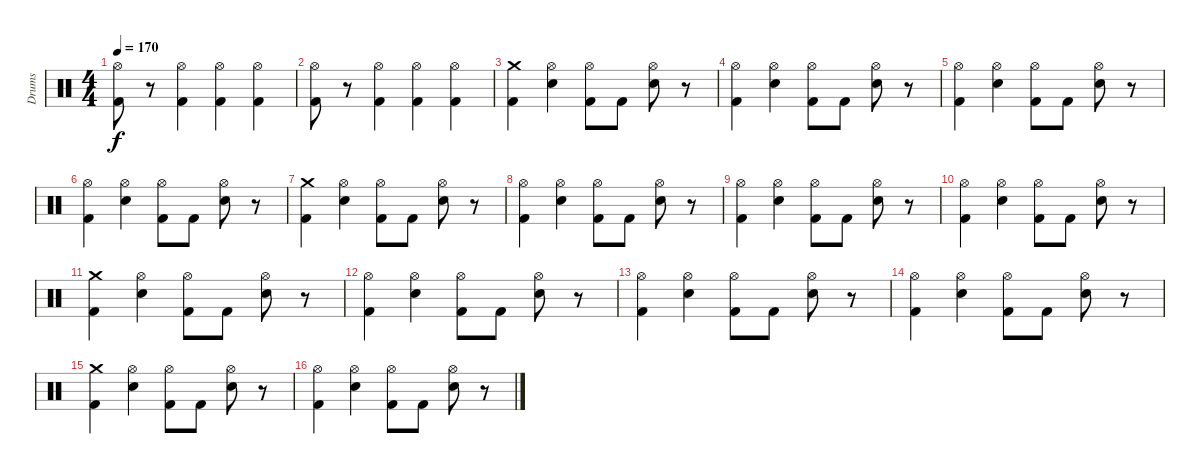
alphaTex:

\track ("Drums" "Drums") {instrument percussion}
\staff {score}
\articulation defaults
\ts (4 4)
\tempo 170
\clef neutral
\ks c
("Hi-Hat (open)" "Kick (hit) 2").8{dy f} r.8 ("Kick (hit) 2" "Hi-Hat (open)").4 ("Hi-Hat (open)" "Kick (hit) 2").4 ("Kick (hit) 2" "Hi-Hat (open)").4 |
("Hi-Hat (open)" "Kick (hit) 2").8 r.8 ("Kick (hit) 2" "Hi-Hat (open)").4 ("Hi-Hat (open)" "Kick (hit) 2").4 ("Kick (hit) 2" "Hi-Hat (open)").4 |
("Crash medium (hit)" "Kick (hit) 2").4 ("Hi-Hat (open)" "Electric Snare (hit)").4 ("Hi-Hat (open)" "Kick (hit) 2").8 "Kick (hit) 2".8 ("Hi-Hat (open)" "Electric Snare (hit)").8 r.8 |
("Hi-Hat (open)" "Kick (hit) 2").4 ("Hi-Hat (open)" "Electric Snare (hit)").4 ("Hi-Hat (open)" "Kick (hit) 2").8 "Kick (hit) 2".8 ("Hi-Hat (open)" "Electric Snare (hit)").8 r.8 |
("Hi-Hat (open)" "Kick (hit) 2").4 ("Hi-Hat (open)" "Electric Snare (hit)").4 ("Hi-Hat (open)" "Kick (hit) 2").8 "Kick (hit) 2".8 ("Hi-Hat (open)" "Electric Snare (hit)").8 r.8 |
("Hi-Hat (open)" "Kick (hit) 2").4 ("Hi-Hat (open)" "Electric Snare (hit)").4 ("Hi-Hat (open)" "Kick (hit) 2").8 "Kick (hit) 2".8 ("Hi-Hat (open)" "Electric Snare (hit)").8 r.8 |
("Crash medium (hit)" "Kick (hit) 2").4 ("Hi-Hat (open)" "Electric Snare (hit)").4 ("Hi-Hat (open)" "Kick (hit) 2").8 "Kick (hit) 2".8 ("Hi-Hat (open)" "Electric Snare (hit)").8 r.8 |
("Hi-Hat (open)" "Kick (hit) 2").4 ("Hi-Hat (open)" "Electric Snare (hit)").4 ("Hi-Hat (open)" "Kick (hit) 2").8 "Kick (hit) 2".8 ("Hi-Hat (open)" "Electric Snare (hit)").8 r.8 |
("Hi-Hat (open)" "Kick (hit) 2").4 ("Hi-Hat (open)" "Electric Snare (hit)").4 ("Hi-Hat (open)" "Kick (hit) 2").8 "Kick (hit) 2".8 ("Hi-Hat (open)" "Electric Snare (hit)").8 r.8 |
("Hi-Hat (open)" "Kick (hit) 2").4 ("Hi-Hat (open)" "Electric Snare (hit)").4 ("Hi-Hat (open)" "Kick (hit) 2").8 "Kick (hit) 2".8 ("Hi-Hat (open)" "Electric Snare (hit)").8 r.8 |
("Crash medium (hit)" "Kick (hit) 2").4 ("Hi-Hat (open)" "Electric Snare (hit)").4 ("Hi-Hat (open)" "Kick (hit) 2").8 "Kick (hit) 2".8 ("Hi-Hat (open)" "Electric Snare (hit)").8 r.8 |
("Hi-Hat (open)" "Kick (hit) 2").4 ("Hi-Hat (open)" "Electric Snare (hit)").4 ("Hi-Hat (open)" "Kick (hit) 2").8 "Kick (hit) 2".8 ("Hi-Hat (open)" "Electric Snare (hit)").8 r.8 |
("Hi-Hat (open)" "Kick (hit) 2").4 ("Hi-Hat (open)" "Electric Snare (hit)").4 ("Hi-Hat (open)" "Kick (hit) 2").8 "Kick (hit) 2".8 ("Hi-Hat (open)" "Electric Snare (hit)").8 r.8 |
("Hi-Hat (open)" "Kick (hit) 2").4 ("Hi-Hat (open)" "Electric Snare (hit)").4 ("Hi-Hat (open)" "Kick (hit) 2").8 "Kick (hit) 2".8 ("Hi-Hat (open)" "Electric Snare (hit)").8 r.8 |
("Crash medium (hit)" "Kick (hit) 2").4 ("Hi-Hat (open)" "Electric Snare (hit)").4 ("Hi-Hat (open)" "Kick (hit) 2").8 "Kick (hit) 2".8 ("Hi-Hat (open)" "Electric Snare (hit)").8 r.8 |
("Hi-Hat (open)" "Kick (hit) 2").4 ("Hi-Hat (open)" "Electric Snare (hit)").4 ("Hi-Hat (open)" "Kick (hit) 2").8 "Kick (hit) 2".8 ("Hi-Hat (open)" "Electric Snare (hit)").8 r.8
